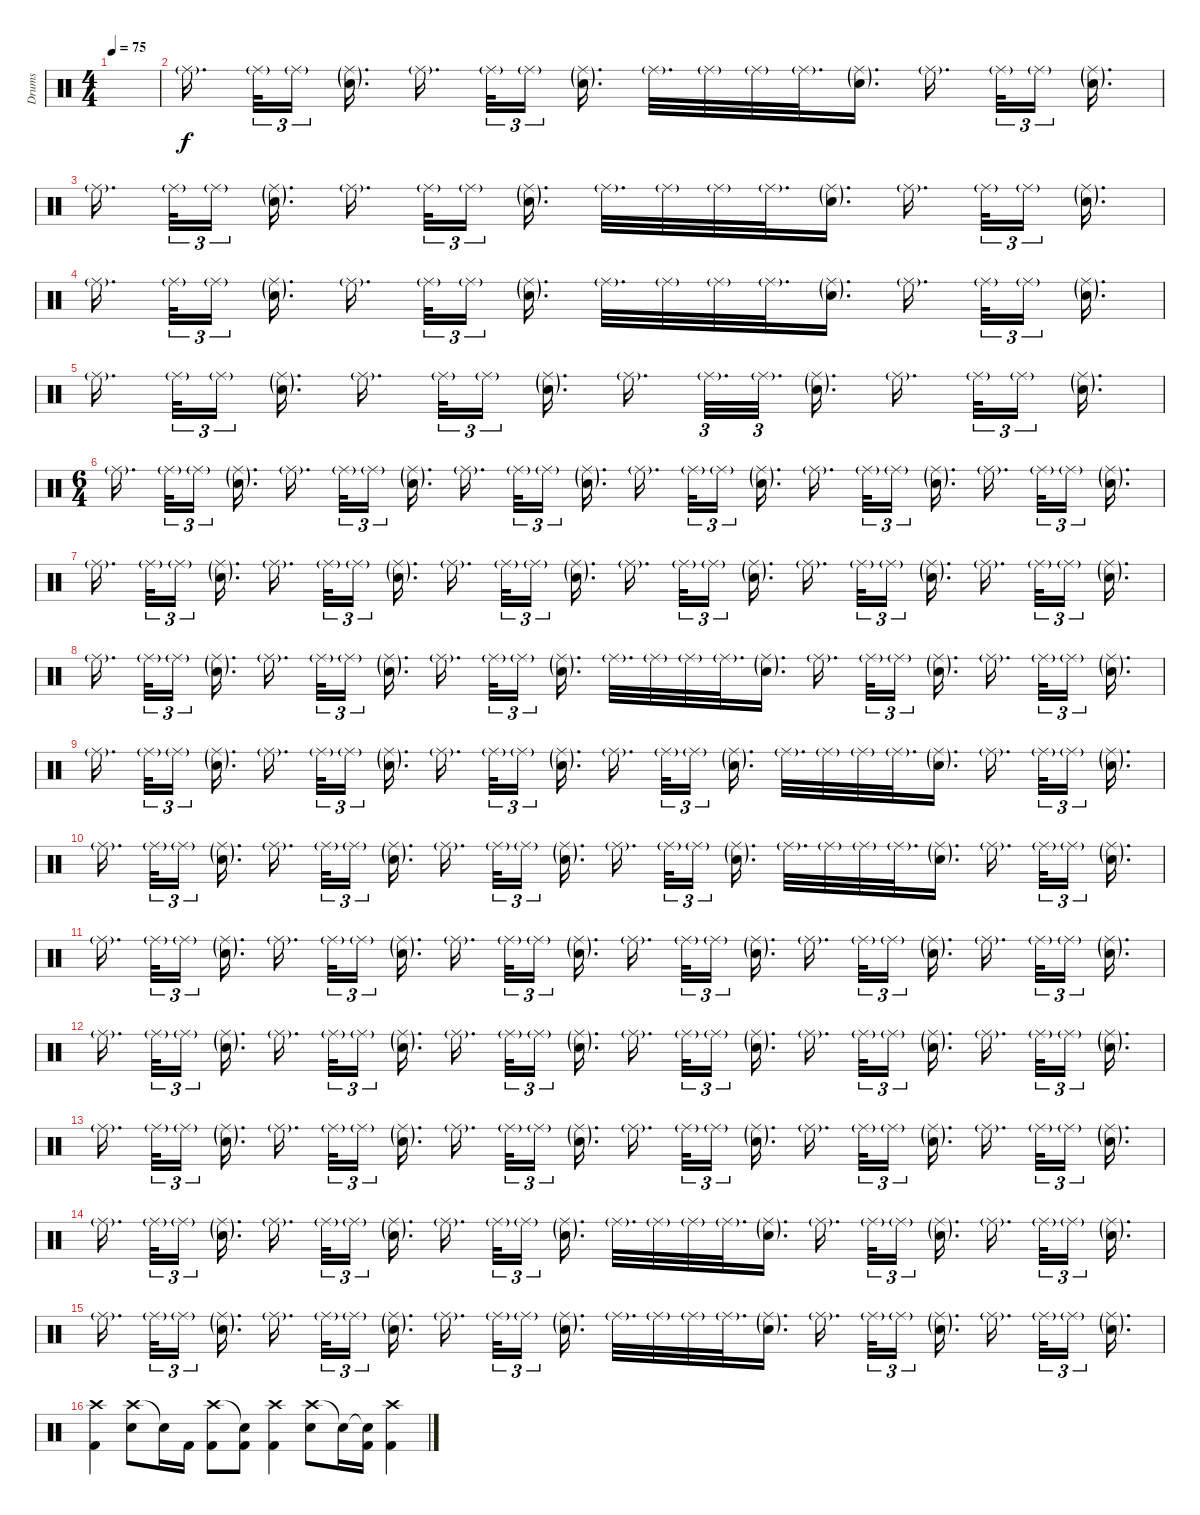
\track ("Drums" "Drums") {instrument percussion}
\staff {score}
\articulation defaults
\ts (4 4)
\tempo 75
\clef neutral
\ks c
|
"Ride (middle)"{g}.16{d beam splitsecondary} "Ride (middle)"{g}.32{tu (3 2)} "Ride (middle)"{g}.16{tu (3 2) beam splitsecondary} ("Ride (middle)"{g} "Snare (hit) 2"{g}).16{d} "Ride (middle)"{g}.16{d beam splitsecondary} "Ride (middle)"{g}.32{tu (3 2)} "Ride (middle)"{g}.16{tu (3 2) beam splitsecondary} ("Ride (middle)"{g} "Snare (hit) 2"{g}).16{d} "Ride (middle)"{g}.32{d} "Ride (middle)"{g}.32 "Ride (middle)"{g}.32 "Ride (middle)"{g}.32{d} ("Ride (middle)"{g} "Snare (hit) 2"{g}).16{d} "Ride (middle)"{g}.16{d beam splitsecondary} "Ride (middle)"{g}.32{tu (3 2)} "Ride (middle)"{g}.16{tu (3 2) beam splitsecondary} ("Ride (middle)"{g} "Snare (hit) 2"{g}).16{d} |
"Ride (middle)"{g}.16{d beam splitsecondary} "Ride (middle)"{g}.32{tu (3 2)} "Ride (middle)"{g}.16{tu (3 2) beam splitsecondary} ("Ride (middle)"{g} "Snare (hit) 2"{g}).16{d} "Ride (middle)"{g}.16{d beam splitsecondary} "Ride (middle)"{g}.32{tu (3 2)} "Ride (middle)"{g}.16{tu (3 2) beam splitsecondary} ("Ride (middle)"{g} "Snare (hit) 2"{g}).16{d} "Ride (middle)"{g}.32{d} "Ride (middle)"{g}.32 "Ride (middle)"{g}.32 "Ride (middle)"{g}.32{d} ("Ride (middle)"{g} "Snare (hit) 2"{g}).16{d} "Ride (middle)"{g}.16{d beam splitsecondary} "Ride (middle)"{g}.32{tu (3 2)} "Ride (middle)"{g}.16{tu (3 2) beam splitsecondary} ("Ride (middle)"{g} "Snare (hit) 2"{g}).16{d} |
"Ride (middle)"{g}.16{d beam splitsecondary} "Ride (middle)"{g}.32{tu (3 2)} "Ride (middle)"{g}.16{tu (3 2) beam splitsecondary} ("Ride (middle)"{g} "Snare (hit) 2"{g}).16{d} "Ride (middle)"{g}.16{d beam splitsecondary} "Ride (middle)"{g}.32{tu (3 2)} "Ride (middle)"{g}.16{tu (3 2) beam splitsecondary} ("Ride (middle)"{g} "Snare (hit) 2"{g}).16{d} "Ride (middle)"{g}.32{d} "Ride (middle)"{g}.32 "Ride (middle)"{g}.32 "Ride (middle)"{g}.32{d} ("Ride (middle)"{g} "Snare (hit) 2"{g}).16{d} "Ride (middle)"{g}.16{d beam splitsecondary} "Ride (middle)"{g}.32{tu (3 2)} "Ride (middle)"{g}.16{tu (3 2) beam splitsecondary} ("Ride (middle)"{g} "Snare (hit) 2"{g}).16{d} |
"Ride (middle)"{g}.16{d beam splitsecondary} "Ride (middle)"{g}.32{tu (3 2)} "Ride (middle)"{g}.16{tu (3 2) beam splitsecondary} ("Ride (middle)"{g} "Snare (hit) 2"{g}).16{d} "Ride (middle)"{g}.16{d beam splitsecondary} "Ride (middle)"{g}.32{tu (3 2)} "Ride (middle)"{g}.16{tu (3 2) beam splitsecondary} ("Ride (middle)"{g} "Snare (hit) 2"{g}).16{d} "Ride (middle)"{g}.16{d beam splitsecondary} "Ride (middle)"{g}.32{d tu (3 2)} "Ride (middle)"{g}.32{d tu (3 2) beam splitsecondary} ("Ride (middle)"{g} "Snare (hit) 2"{g}).16{d} "Ride (middle)"{g}.16{d beam splitsecondary} "Ride (middle)"{g}.32{tu (3 2)} "Ride (middle)"{g}.16{tu (3 2) beam splitsecondary} ("Ride (middle)"{g} "Snare (hit) 2"{g}).16{d} |
\ts (6 4)
"Ride (middle)"{g}.16{d beam splitsecondary} "Ride (middle)"{g}.32{tu (3 2)} "Ride (middle)"{g}.16{tu (3 2) beam splitsecondary} ("Ride (middle)"{g} "Snare (hit) 2"{g}).16{d} "Ride (middle)"{g}.16{d beam splitsecondary} "Ride (middle)"{g}.32{tu (3 2)} "Ride (middle)"{g}.16{tu (3 2) beam splitsecondary} ("Ride (middle)"{g} "Snare (hit) 2"{g}).16{d} "Ride (middle)"{g}.16{d beam splitsecondary} "Ride (middle)"{g}.32{tu (3 2)} "Ride (middle)"{g}.16{tu (3 2) beam splitsecondary} ("Ride (middle)"{g} "Snare (hit) 2"{g}).16{d} "Ride (middle)"{g}.16{d beam splitsecondary} "Ride (middle)"{g}.32{tu (3 2)} "Ride (middle)"{g}.16{tu (3 2) beam splitsecondary} ("Ride (middle)"{g} "Snare (hit) 2"{g}).16{d} "Ride (middle)"{g}.16{d beam splitsecondary} "Ride (middle)"{g}.32{tu (3 2)} "Ride (middle)"{g}.16{tu (3 2) beam splitsecondary} ("Ride (middle)"{g} "Snare (hit) 2"{g}).16{d} "Ride (middle)"{g}.16{d beam splitsecondary} "Ride (middle)"{g}.32{tu (3 2)} "Ride (middle)"{g}.16{tu (3 2) beam splitsecondary} ("Ride (middle)"{g} "Snare (hit) 2"{g}).16{d} |
"Ride (middle)"{g}.16{d beam splitsecondary} "Ride (middle)"{g}.32{tu (3 2)} "Ride (middle)"{g}.16{tu (3 2) beam splitsecondary} ("Ride (middle)"{g} "Snare (hit) 2"{g}).16{d} "Ride (middle)"{g}.16{d beam splitsecondary} "Ride (middle)"{g}.32{tu (3 2)} "Ride (middle)"{g}.16{tu (3 2) beam splitsecondary} ("Ride (middle)"{g} "Snare (hit) 2"{g}).16{d} "Ride (middle)"{g}.16{d beam splitsecondary} "Ride (middle)"{g}.32{tu (3 2)} "Ride (middle)"{g}.16{tu (3 2) beam splitsecondary} ("Ride (middle)"{g} "Snare (hit) 2"{g}).16{d} "Ride (middle)"{g}.16{d beam splitsecondary} "Ride (middle)"{g}.32{tu (3 2)} "Ride (middle)"{g}.16{tu (3 2) beam splitsecondary} ("Ride (middle)"{g} "Snare (hit) 2"{g}).16{d} "Ride (middle)"{g}.16{d beam splitsecondary} "Ride (middle)"{g}.32{tu (3 2)} "Ride (middle)"{g}.16{tu (3 2) beam splitsecondary} ("Ride (middle)"{g} "Snare (hit) 2"{g}).16{d} "Ride (middle)"{g}.16{d beam splitsecondary} "Ride (middle)"{g}.32{tu (3 2)} "Ride (middle)"{g}.16{tu (3 2) beam splitsecondary} ("Ride (middle)"{g} "Snare (hit) 2"{g}).16{d} |
"Ride (middle)"{g}.16{d beam splitsecondary} "Ride (middle)"{g}.32{tu (3 2)} "Ride (middle)"{g}.16{tu (3 2) beam splitsecondary} ("Ride (middle)"{g} "Snare (hit) 2"{g}).16{d} "Ride (middle)"{g}.16{d beam splitsecondary} "Ride (middle)"{g}.32{tu (3 2)} "Ride (middle)"{g}.16{tu (3 2) beam splitsecondary} ("Ride (middle)"{g} "Snare (hit) 2"{g}).16{d} "Ride (middle)"{g}.16{d beam splitsecondary} "Ride (middle)"{g}.32{tu (3 2)} "Ride (middle)"{g}.16{tu (3 2) beam splitsecondary} ("Ride (middle)"{g} "Snare (hit) 2"{g}).16{d} "Ride (middle)"{g}.32{d} "Ride (middle)"{g}.32 "Ride (middle)"{g}.32 "Ride (middle)"{g}.32{d} ("Ride (middle)"{g} "Snare (hit) 2"{g}).16{d} "Ride (middle)"{g}.16{d beam splitsecondary} "Ride (middle)"{g}.32{tu (3 2)} "Ride (middle)"{g}.16{tu (3 2) beam splitsecondary} ("Ride (middle)"{g} "Snare (hit) 2"{g}).16{d} "Ride (middle)"{g}.16{d beam splitsecondary} "Ride (middle)"{g}.32{tu (3 2)} "Ride (middle)"{g}.16{tu (3 2) beam splitsecondary} ("Ride (middle)"{g} "Snare (hit) 2"{g}).16{d} |
"Ride (middle)"{g}.16{d beam splitsecondary} "Ride (middle)"{g}.32{tu (3 2)} "Ride (middle)"{g}.16{tu (3 2) beam splitsecondary} ("Ride (middle)"{g} "Snare (hit) 2"{g}).16{d} "Ride (middle)"{g}.16{d beam splitsecondary} "Ride (middle)"{g}.32{tu (3 2)} "Ride (middle)"{g}.16{tu (3 2) beam splitsecondary} ("Ride (middle)"{g} "Snare (hit) 2"{g}).16{d} "Ride (middle)"{g}.16{d beam splitsecondary} "Ride (middle)"{g}.32{tu (3 2)} "Ride (middle)"{g}.16{tu (3 2) beam splitsecondary} ("Ride (middle)"{g} "Snare (hit) 2"{g}).16{d} "Ride (middle)"{g}.16{d beam splitsecondary} "Ride (middle)"{g}.32{tu (3 2)} "Ride (middle)"{g}.16{tu (3 2) beam splitsecondary} ("Ride (middle)"{g} "Snare (hit) 2"{g}).16{d} "Ride (middle)"{g}.32{d} "Ride (middle)"{g}.32 "Ride (middle)"{g}.32 "Ride (middle)"{g}.32{d} ("Ride (middle)"{g} "Snare (hit) 2"{g}).16{d} "Ride (middle)"{g}.16{d beam splitsecondary} "Ride (middle)"{g}.32{tu (3 2)} "Ride (middle)"{g}.16{tu (3 2) beam splitsecondary} ("Ride (middle)"{g} "Snare (hit) 2"{g}).16{d} |
"Ride (middle)"{g}.16{d beam splitsecondary} "Ride (middle)"{g}.32{tu (3 2)} "Ride (middle)"{g}.16{tu (3 2) beam splitsecondary} ("Ride (middle)"{g} "Snare (hit) 2"{g}).16{d} "Ride (middle)"{g}.16{d beam splitsecondary} "Ride (middle)"{g}.32{tu (3 2)} "Ride (middle)"{g}.16{tu (3 2) beam splitsecondary} ("Ride (middle)"{g} "Snare (hit) 2"{g}).16{d} "Ride (middle)"{g}.16{d beam splitsecondary} "Ride (middle)"{g}.32{tu (3 2)} "Ride (middle)"{g}.16{tu (3 2) beam splitsecondary} ("Ride (middle)"{g} "Snare (hit) 2"{g}).16{d} "Ride (middle)"{g}.16{d beam splitsecondary} "Ride (middle)"{g}.32{tu (3 2)} "Ride (middle)"{g}.16{tu (3 2) beam splitsecondary} ("Ride (middle)"{g} "Snare (hit) 2"{g}).16{d} "Ride (middle)"{g}.32{d} "Ride (middle)"{g}.32 "Ride (middle)"{g}.32 "Ride (middle)"{g}.32{d} ("Ride (middle)"{g} "Snare (hit) 2"{g}).16{d} "Ride (middle)"{g}.16{d beam splitsecondary} "Ride (middle)"{g}.32{tu (3 2)} "Ride (middle)"{g}.16{tu (3 2) beam splitsecondary} ("Ride (middle)"{g} "Snare (hit) 2"{g}).16{d} |
"Ride (middle)"{g}.16{d beam splitsecondary} "Ride (middle)"{g}.32{tu (3 2)} "Ride (middle)"{g}.16{tu (3 2) beam splitsecondary} ("Ride (middle)"{g} "Snare (hit) 2"{g}).16{d} "Ride (middle)"{g}.16{d beam splitsecondary} "Ride (middle)"{g}.32{tu (3 2)} "Ride (middle)"{g}.16{tu (3 2) beam splitsecondary} ("Ride (middle)"{g} "Snare (hit) 2"{g}).16{d} "Ride (middle)"{g}.16{d beam splitsecondary} "Ride (middle)"{g}.32{tu (3 2)} "Ride (middle)"{g}.16{tu (3 2) beam splitsecondary} ("Ride (middle)"{g} "Snare (hit) 2"{g}).16{d} "Ride (middle)"{g}.16{d beam splitsecondary} "Ride (middle)"{g}.32{tu (3 2)} "Ride (middle)"{g}.16{tu (3 2) beam splitsecondary} ("Ride (middle)"{g} "Snare (hit) 2"{g}).16{d} "Ride (middle)"{g}.16{d beam splitsecondary} "Ride (middle)"{g}.32{tu (3 2)} "Ride (middle)"{g}.16{tu (3 2) beam splitsecondary} ("Ride (middle)"{g} "Snare (hit) 2"{g}).16{d} "Ride (middle)"{g}.16{d beam splitsecondary} "Ride (middle)"{g}.32{tu (3 2)} "Ride (middle)"{g}.16{tu (3 2) beam splitsecondary} ("Ride (middle)"{g} "Snare (hit) 2"{g}).16{d} |
"Ride (middle)"{g}.16{d beam splitsecondary} "Ride (middle)"{g}.32{tu (3 2)} "Ride (middle)"{g}.16{tu (3 2) beam splitsecondary} ("Ride (middle)"{g} "Snare (hit) 2"{g}).16{d} "Ride (middle)"{g}.16{d beam splitsecondary} "Ride (middle)"{g}.32{tu (3 2)} "Ride (middle)"{g}.16{tu (3 2) beam splitsecondary} ("Ride (middle)"{g} "Snare (hit) 2"{g}).16{d} "Ride (middle)"{g}.16{d beam splitsecondary} "Ride (middle)"{g}.32{tu (3 2)} "Ride (middle)"{g}.16{tu (3 2) beam splitsecondary} ("Ride (middle)"{g} "Snare (hit) 2"{g}).16{d} "Ride (middle)"{g}.16{d beam splitsecondary} "Ride (middle)"{g}.32{tu (3 2)} "Ride (middle)"{g}.16{tu (3 2) beam splitsecondary} ("Ride (middle)"{g} "Snare (hit) 2"{g}).16{d} "Ride (middle)"{g}.16{d beam splitsecondary} "Ride (middle)"{g}.32{tu (3 2)} "Ride (middle)"{g}.16{tu (3 2) beam splitsecondary} ("Ride (middle)"{g} "Snare (hit) 2"{g}).16{d} "Ride (middle)"{g}.16{d beam splitsecondary} "Ride (middle)"{g}.32{tu (3 2)} "Ride (middle)"{g}.16{tu (3 2) beam splitsecondary} ("Ride (middle)"{g} "Snare (hit) 2"{g}).16{d} |
"Ride (middle)"{g}.16{d beam splitsecondary} "Ride (middle)"{g}.32{tu (3 2)} "Ride (middle)"{g}.16{tu (3 2) beam splitsecondary} ("Ride (middle)"{g} "Snare (hit) 2"{g}).16{d} "Ride (middle)"{g}.16{d beam splitsecondary} "Ride (middle)"{g}.32{tu (3 2)} "Ride (middle)"{g}.16{tu (3 2) beam splitsecondary} ("Ride (middle)"{g} "Snare (hit) 2"{g}).16{d} "Ride (middle)"{g}.16{d beam splitsecondary} "Ride (middle)"{g}.32{tu (3 2)} "Ride (middle)"{g}.16{tu (3 2) beam splitsecondary} ("Ride (middle)"{g} "Snare (hit) 2"{g}).16{d} "Ride (middle)"{g}.16{d beam splitsecondary} "Ride (middle)"{g}.32{tu (3 2)} "Ride (middle)"{g}.16{tu (3 2) beam splitsecondary} ("Ride (middle)"{g} "Snare (hit) 2"{g}).16{d} "Ride (middle)"{g}.16{d beam splitsecondary} "Ride (middle)"{g}.32{tu (3 2)} "Ride (middle)"{g}.16{tu (3 2) beam splitsecondary} ("Ride (middle)"{g} "Snare (hit) 2"{g}).16{d} "Ride (middle)"{g}.16{d beam splitsecondary} "Ride (middle)"{g}.32{tu (3 2)} "Ride (middle)"{g}.16{tu (3 2) beam splitsecondary} ("Ride (middle)"{g} "Snare (hit) 2"{g}).16{d} |
"Ride (middle)"{g}.16{d beam splitsecondary} "Ride (middle)"{g}.32{tu (3 2)} "Ride (middle)"{g}.16{tu (3 2) beam splitsecondary} ("Ride (middle)"{g} "Snare (hit) 2"{g}).16{d} "Ride (middle)"{g}.16{d beam splitsecondary} "Ride (middle)"{g}.32{tu (3 2)} "Ride (middle)"{g}.16{tu (3 2) beam splitsecondary} ("Ride (middle)"{g} "Snare (hit) 2"{g}).16{d} "Ride (middle)"{g}.16{d beam splitsecondary} "Ride (middle)"{g}.32{tu (3 2)} "Ride (middle)"{g}.16{tu (3 2) beam splitsecondary} ("Ride (middle)"{g} "Snare (hit) 2"{g}).16{d} "Ride (middle)"{g}.32{d} "Ride (middle)"{g}.32 "Ride (middle)"{g}.32 "Ride (middle)"{g}.32{d} ("Ride (middle)"{g} "Snare (hit) 2"{g}).16{d} "Ride (middle)"{g}.16{d beam splitsecondary} "Ride (middle)"{g}.32{tu (3 2)} "Ride (middle)"{g}.16{tu (3 2) beam splitsecondary} ("Ride (middle)"{g} "Snare (hit) 2"{g}).16{d} "Ride (middle)"{g}.16{d beam splitsecondary} "Ride (middle)"{g}.32{tu (3 2)} "Ride (middle)"{g}.16{tu (3 2) beam splitsecondary} ("Ride (middle)"{g} "Snare (hit) 2"{g}).16{d} |
"Ride (middle)"{g}.16{d beam splitsecondary} "Ride (middle)"{g}.32{tu (3 2)} "Ride (middle)"{g}.16{tu (3 2) beam splitsecondary} ("Ride (middle)"{g} "Snare (hit) 2"{g}).16{d} "Ride (middle)"{g}.16{d beam splitsecondary} "Ride (middle)"{g}.32{tu (3 2)} "Ride (middle)"{g}.16{tu (3 2) beam splitsecondary} ("Ride (middle)"{g} "Snare (hit) 2"{g}).16{d} "Ride (middle)"{g}.16{d beam splitsecondary} "Ride (middle)"{g}.32{tu (3 2)} "Ride (middle)"{g}.16{tu (3 2) beam splitsecondary} ("Ride (middle)"{g} "Snare (hit) 2"{g}).16{d} "Ride (middle)"{g}.32{d} "Ride (middle)"{g}.32 "Ride (middle)"{g}.32 "Ride (middle)"{g}.32{d} ("Ride (middle)"{g} "Snare (hit) 2"{g}).16{d} "Ride (middle)"{g}.16{d beam splitsecondary} "Ride (middle)"{g}.32{tu (3 2)} "Ride (middle)"{g}.16{tu (3 2) beam splitsecondary} ("Ride (middle)"{g} "Snare (hit) 2"{g}).16{d} "Ride (middle)"{g}.16{d beam splitsecondary} "Ride (middle)"{g}.32{tu (3 2)} "Ride (middle)"{g}.16{tu (3 2) beam splitsecondary} ("Ride (middle)"{g} "Snare (hit) 2"{g}).16{d} |
("Crash high (hit)" "Kick (hit) 2").4{dy f volume 14} ("Crash high (hit)" "Snare (hit) 2").8 "Snare (hit)"{t}.16 "Kick (hit) 2".16 ("Crash high (hit)" "Kick (hit) 2").8 ("Snare (hit)"{t} "Kick (hit) 2").8 ("Crash high (hit)" "Kick (hit) 2").4 ("Crash high (hit)" "Snare (hit) 2").8 "Snare (hit)"{t}.16 ("Snare (hit)"{t} "Kick (hit) 2").16 ("Crash high (hit)" "Kick (hit) 2").4
